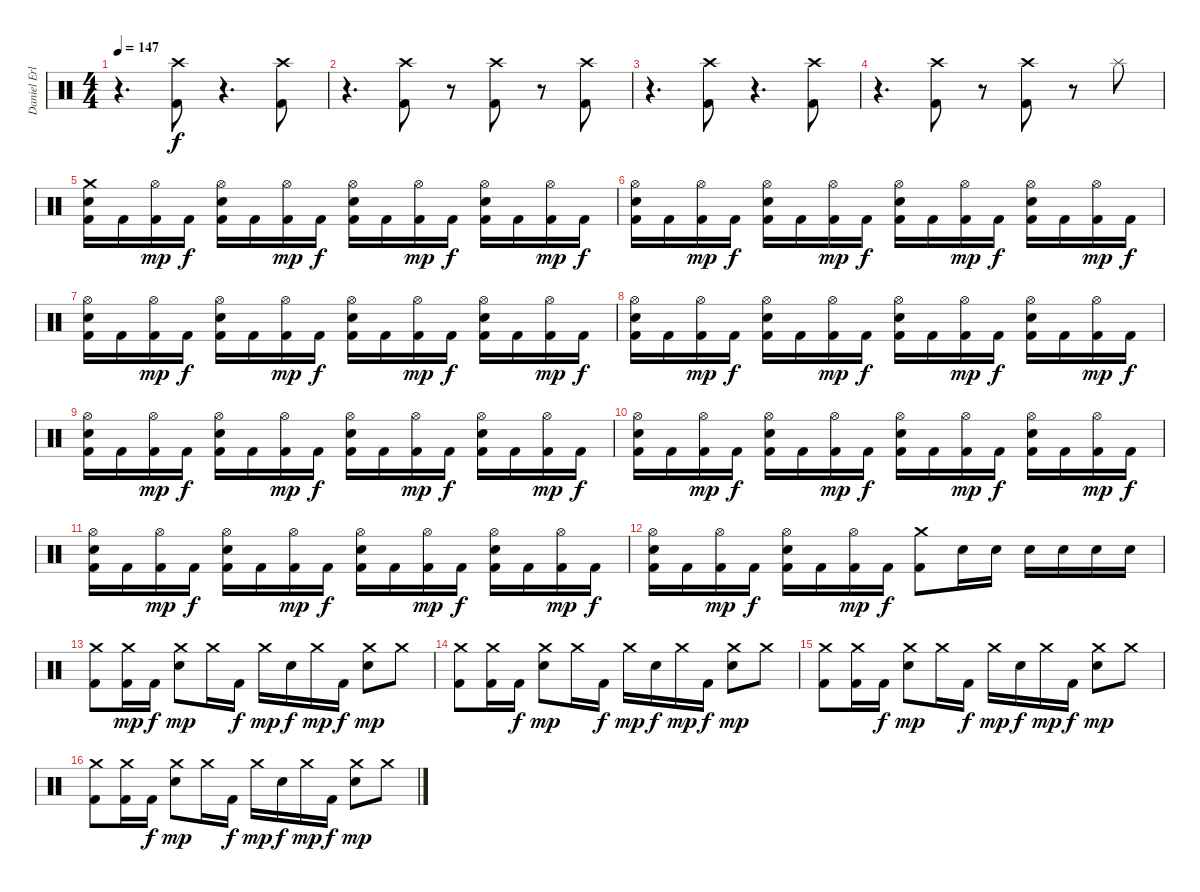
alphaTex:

\track ("Daniel Erlandsson" "Daniel Erl") {instrument percussion}
\staff {score}
\articulation defaults
\ts (4 4)
\tempo 147
\clef neutral
\ks c
r.4{d dy f} ("Crash high (hit)" "Kick (hit) 2").8 r.4{d} ("Crash high (hit)" "Kick (hit) 2").8 |
r.4{d} ("Crash high (hit)" "Kick (hit) 2").8 r.8 ("Crash high (hit)" "Kick (hit) 2").8 r.8 ("Crash high (hit)" "Kick (hit) 2").8 |
r.4{d} ("Crash high (hit)" "Kick (hit) 2").8 r.4{d} ("Crash high (hit)" "Kick (hit) 2").8 |
r.4{d} ("Crash high (hit)" "Kick (hit) 2").8 r.8 ("Crash high (hit)" "Kick (hit) 2").8 r.8 "Splash (hit)".8 |
("Crash medium (hit)" "Electric Snare (hit)" "Kick (hit) 2").16 "Kick (hit) 2".16 ("Hi-Hat (open)" "Kick (hit) 2").16{dy mp} "Kick (hit) 2".16{dy f} ("Hi-Hat (open)" "Electric Snare (hit)" "Kick (hit) 2").16 "Kick (hit) 2".16 ("Hi-Hat (open)" "Kick (hit) 2").16{dy mp} "Kick (hit) 2".16{dy f} ("Hi-Hat (open)" "Electric Snare (hit)" "Kick (hit) 2").16 "Kick (hit) 2".16 ("Hi-Hat (open)" "Kick (hit) 2").16{dy mp} "Kick (hit) 2".16{dy f} ("Hi-Hat (open)" "Electric Snare (hit)" "Kick (hit) 2").16 "Kick (hit) 2".16 ("Hi-Hat (open)" "Kick (hit) 2").16{dy mp} "Kick (hit) 2".16{dy f} |
("Hi-Hat (open)" "Electric Snare (hit)" "Kick (hit) 2").16 "Kick (hit) 2".16 ("Hi-Hat (open)" "Kick (hit) 2").16{dy mp} "Kick (hit) 2".16{dy f} ("Hi-Hat (open)" "Electric Snare (hit)" "Kick (hit) 2").16 "Kick (hit) 2".16 ("Hi-Hat (open)" "Kick (hit) 2").16{dy mp} "Kick (hit) 2".16{dy f} ("Hi-Hat (open)" "Electric Snare (hit)" "Kick (hit) 2").16 "Kick (hit) 2".16 ("Hi-Hat (open)" "Kick (hit) 2").16{dy mp} "Kick (hit) 2".16{dy f} ("Hi-Hat (open)" "Electric Snare (hit)" "Kick (hit) 2").16 "Kick (hit) 2".16 ("Hi-Hat (open)" "Kick (hit) 2").16{dy mp} "Kick (hit) 2".16{dy f} |
("Hi-Hat (open)" "Electric Snare (hit)" "Kick (hit) 2").16 "Kick (hit) 2".16 ("Hi-Hat (open)" "Kick (hit) 2").16{dy mp} "Kick (hit) 2".16{dy f} ("Hi-Hat (open)" "Electric Snare (hit)" "Kick (hit) 2").16 "Kick (hit) 2".16 ("Hi-Hat (open)" "Kick (hit) 2").16{dy mp} "Kick (hit) 2".16{dy f} ("Hi-Hat (open)" "Electric Snare (hit)" "Kick (hit) 2").16 "Kick (hit) 2".16 ("Hi-Hat (open)" "Kick (hit) 2").16{dy mp} "Kick (hit) 2".16{dy f} ("Hi-Hat (open)" "Electric Snare (hit)" "Kick (hit) 2").16 "Kick (hit) 2".16 ("Hi-Hat (open)" "Kick (hit) 2").16{dy mp} "Kick (hit) 2".16{dy f} |
("Hi-Hat (open)" "Electric Snare (hit)" "Kick (hit) 2").16 "Kick (hit) 2".16 ("Hi-Hat (open)" "Kick (hit) 2").16{dy mp} "Kick (hit) 2".16{dy f} ("Hi-Hat (open)" "Electric Snare (hit)" "Kick (hit) 2").16 "Kick (hit) 2".16 ("Hi-Hat (open)" "Kick (hit) 2").16{dy mp} "Kick (hit) 2".16{dy f} ("Hi-Hat (open)" "Electric Snare (hit)" "Kick (hit) 2").16 "Kick (hit) 2".16 ("Hi-Hat (open)" "Kick (hit) 2").16{dy mp} "Kick (hit) 2".16{dy f} ("Hi-Hat (open)" "Electric Snare (hit)" "Kick (hit) 2").16 "Kick (hit) 2".16 ("Hi-Hat (open)" "Kick (hit) 2").16{dy mp} "Kick (hit) 2".16{dy f} |
("Hi-Hat (open)" "Electric Snare (hit)" "Kick (hit) 2").16 "Kick (hit) 2".16 ("Hi-Hat (open)" "Kick (hit) 2").16{dy mp} "Kick (hit) 2".16{dy f} ("Hi-Hat (open)" "Electric Snare (hit)" "Kick (hit) 2").16 "Kick (hit) 2".16 ("Hi-Hat (open)" "Kick (hit) 2").16{dy mp} "Kick (hit) 2".16{dy f} ("Hi-Hat (open)" "Electric Snare (hit)" "Kick (hit) 2").16 "Kick (hit) 2".16 ("Hi-Hat (open)" "Kick (hit) 2").16{dy mp} "Kick (hit) 2".16{dy f} ("Hi-Hat (open)" "Electric Snare (hit)" "Kick (hit) 2").16 "Kick (hit) 2".16 ("Hi-Hat (open)" "Kick (hit) 2").16{dy mp} "Kick (hit) 2".16{dy f} |
("Hi-Hat (open)" "Electric Snare (hit)" "Kick (hit) 2").16 "Kick (hit) 2".16 ("Hi-Hat (open)" "Kick (hit) 2").16{dy mp} "Kick (hit) 2".16{dy f} ("Hi-Hat (open)" "Electric Snare (hit)" "Kick (hit) 2").16 "Kick (hit) 2".16 ("Hi-Hat (open)" "Kick (hit) 2").16{dy mp} "Kick (hit) 2".16{dy f} ("Hi-Hat (open)" "Electric Snare (hit)" "Kick (hit) 2").16 "Kick (hit) 2".16 ("Hi-Hat (open)" "Kick (hit) 2").16{dy mp} "Kick (hit) 2".16{dy f} ("Hi-Hat (open)" "Electric Snare (hit)" "Kick (hit) 2").16 "Kick (hit) 2".16 ("Hi-Hat (open)" "Kick (hit) 2").16{dy mp} "Kick (hit) 2".16{dy f} |
("Hi-Hat (open)" "Electric Snare (hit)" "Kick (hit) 2").16 "Kick (hit) 2".16 ("Hi-Hat (open)" "Kick (hit) 2").16{dy mp} "Kick (hit) 2".16{dy f} ("Hi-Hat (open)" "Electric Snare (hit)" "Kick (hit) 2").16 "Kick (hit) 2".16 ("Hi-Hat (open)" "Kick (hit) 2").16{dy mp} "Kick (hit) 2".16{dy f} ("Hi-Hat (open)" "Electric Snare (hit)" "Kick (hit) 2").16 "Kick (hit) 2".16 ("Hi-Hat (open)" "Kick (hit) 2").16{dy mp} "Kick (hit) 2".16{dy f} ("Hi-Hat (open)" "Electric Snare (hit)" "Kick (hit) 2").16 "Kick (hit) 2".16 ("Hi-Hat (open)" "Kick (hit) 2").16{dy mp} "Kick (hit) 2".16{dy f} |
("Hi-Hat (open)" "Electric Snare (hit)" "Kick (hit) 2").16 "Kick (hit) 2".16 ("Hi-Hat (open)" "Kick (hit) 2").16{dy mp} "Kick (hit) 2".16{dy f} ("Hi-Hat (open)" "Electric Snare (hit)" "Kick (hit) 2").16 "Kick (hit) 2".16 ("Hi-Hat (open)" "Kick (hit) 2").16{dy mp} "Kick (hit) 2".16{dy f} ("Crash medium (hit)" "Kick (hit) 2").8 "Electric Snare (hit)".16 "Electric Snare (hit)".16 "Electric Snare (hit)".16 "Electric Snare (hit)".16 "Electric Snare (hit)".16 "Electric Snare (hit)".16 |
("Crash medium (hit)" "Kick (hit) 2").8 ("Crash medium (hit)" "Kick (hit) 2").16{dy mp} "Kick (hit) 2".16{dy f} ("Crash medium (hit)" "Electric Snare (hit)").8{dy mp} "Crash medium (hit)".16 "Kick (hit) 2".16{dy f} "Crash medium (hit)".16{dy mp} "Electric Snare (hit)".16{dy f} "Crash medium (hit)".16{dy mp} "Kick (hit) 2".16{dy f} ("Crash medium (hit)" "Electric Snare (hit)").8{dy mp} "Crash medium (hit)".8 |
("Crash medium (hit)" "Kick (hit) 2").8 ("Crash medium (hit)" "Kick (hit) 2").16 "Kick (hit) 2".16{dy f} ("Crash medium (hit)" "Electric Snare (hit)").8{dy mp} "Crash medium (hit)".16 "Kick (hit) 2".16{dy f} "Crash medium (hit)".16{dy mp} "Electric Snare (hit)".16{dy f} "Crash medium (hit)".16{dy mp} "Kick (hit) 2".16{dy f} ("Crash medium (hit)" "Electric Snare (hit)").8{dy mp} "Crash medium (hit)".8 |
("Crash medium (hit)" "Kick (hit) 2").8 ("Crash medium (hit)" "Kick (hit) 2").16 "Kick (hit) 2".16{dy f} ("Crash medium (hit)" "Electric Snare (hit)").8{dy mp} "Crash medium (hit)".16 "Kick (hit) 2".16{dy f} "Crash medium (hit)".16{dy mp} "Electric Snare (hit)".16{dy f} "Crash medium (hit)".16{dy mp} "Kick (hit) 2".16{dy f} ("Crash medium (hit)" "Electric Snare (hit)").8{dy mp} "Crash medium (hit)".8 |
("Crash medium (hit)" "Kick (hit) 2").8 ("Crash medium (hit)" "Kick (hit) 2").16 "Kick (hit) 2".16{dy f} ("Crash medium (hit)" "Electric Snare (hit)").8{dy mp} "Crash medium (hit)".16 "Kick (hit) 2".16{dy f} "Crash medium (hit)".16{dy mp} "Electric Snare (hit)".16{dy f} "Crash medium (hit)".16{dy mp} "Kick (hit) 2".16{dy f} ("Crash medium (hit)" "Electric Snare (hit)").8{dy mp} "Crash medium (hit)".8
